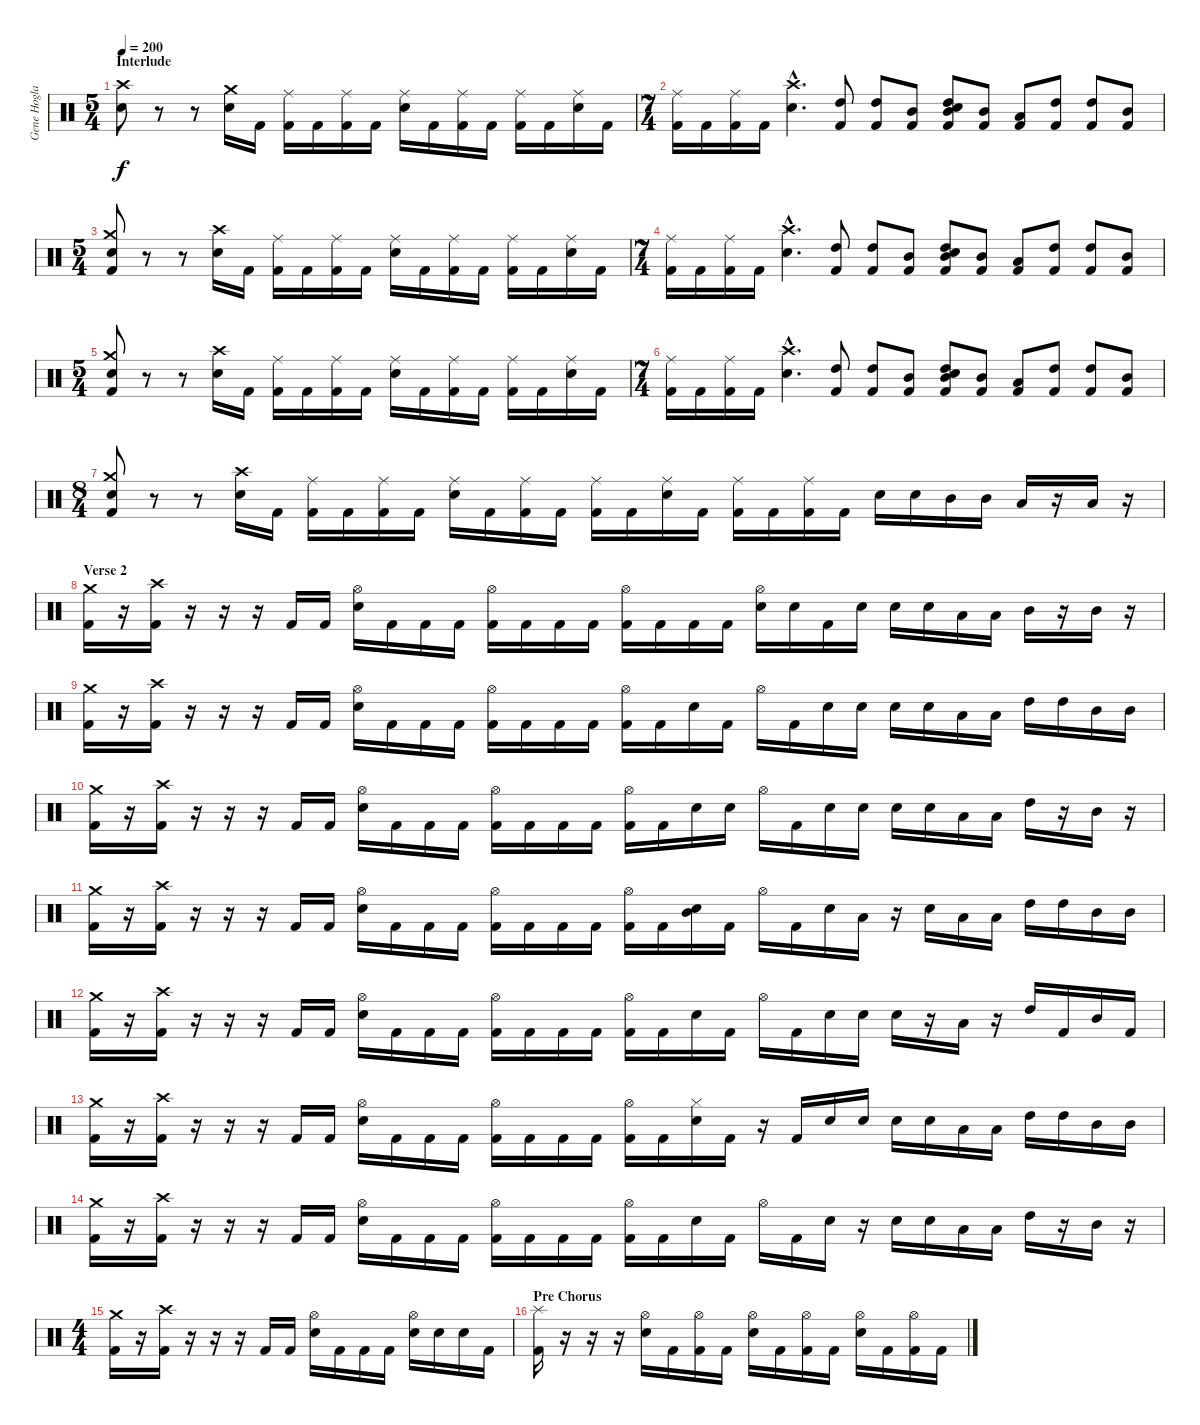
\track ("Gene Hoglan" "Gene Hogla") {instrument percussion}
\staff {score}
\articulation defaults
\ts (5 4)
\section ("" "Interlude")
\tempo 200
\clef neutral
\ks c
("Crash high (hit)" "Electric Snare (hit)").8{dy f} r.8 r.8 ("Crash medium (hit)" "Electric Snare (hit)").16 "Kick (hit) 2".16 ("Ride (middle)" "Kick (hit) 2").16 "Kick (hit) 2".16 ("Ride (middle)" "Kick (hit) 2").16 "Kick (hit) 2".16 ("Ride (middle)" "Electric Snare (hit)").16 "Kick (hit) 2".16 ("Ride (middle)" "Kick (hit) 2").16 "Kick (hit) 2".16 ("Ride (middle)" "Kick (hit) 2").16 "Kick (hit) 2".16 ("Ride (middle)" "Electric Snare (hit)").16 "Kick (hit) 2".16 |
\ts (7 4)
("Ride (middle)" "Kick (hit) 2").16 "Kick (hit) 2".16 ("Ride (middle)" "Kick (hit) 2").16 "Kick (hit) 2".16 ("Crash high (hit)"{hac} "Electric Snare (hit)"{hac}).4{d} ("High Tom (hit)" "Kick (hit) 2").8 ("High Tom (hit)" "Kick (hit) 2").8 ("Mid Tom (hit)" "Kick (hit) 2").8 ("High Tom (hit)" "Mid Tom (hit)" "Electric Snare (hit)" "Kick (hit) 2").8 ("Mid Tom (hit)" "Kick (hit) 2").8 ("Low Tom (hit)" "Kick (hit) 2").8 ("High Tom (hit)" "Kick (hit) 2").8 ("High Tom (hit)" "Kick (hit) 2").8 ("Mid Tom (hit)" "Kick (hit) 2").8 |
\ts (5 4)
("Crash medium (hit)" "Electric Snare (hit)" "Kick (hit) 2").8 r.8 r.8 ("Crash high (hit)" "Electric Snare (hit)").16 "Kick (hit) 2".16 ("Ride (middle)" "Kick (hit) 2").16 "Kick (hit) 2".16 ("Ride (middle)" "Kick (hit) 2").16 "Kick (hit) 2".16 ("Ride (middle)" "Electric Snare (hit)").16 "Kick (hit) 2".16 ("Ride (middle)" "Kick (hit) 2").16 "Kick (hit) 2".16 ("Ride (middle)" "Kick (hit) 2").16 "Kick (hit) 2".16 ("Ride (middle)" "Electric Snare (hit)").16 "Kick (hit) 2".16 |
\ts (7 4)
("Ride (middle)" "Kick (hit) 2").16 "Kick (hit) 2".16 ("Ride (middle)" "Kick (hit) 2").16 "Kick (hit) 2".16 ("Crash high (hit)"{hac} "Electric Snare (hit)"{hac}).4{d} ("High Tom (hit)" "Kick (hit) 2").8 ("High Tom (hit)" "Kick (hit) 2").8 ("Mid Tom (hit)" "Kick (hit) 2").8 ("High Tom (hit)" "Mid Tom (hit)" "Electric Snare (hit)" "Kick (hit) 2").8 ("Mid Tom (hit)" "Kick (hit) 2").8 ("Low Tom (hit)" "Kick (hit) 2").8 ("High Tom (hit)" "Kick (hit) 2").8 ("High Tom (hit)" "Kick (hit) 2").8 ("Mid Tom (hit)" "Kick (hit) 2").8 |
\ts (5 4)
("Crash medium (hit)" "Electric Snare (hit)" "Kick (hit) 2").8 r.8 r.8 ("Crash high (hit)" "Electric Snare (hit)").16 "Kick (hit) 2".16 ("Ride (middle)" "Kick (hit) 2").16 "Kick (hit) 2".16 ("Ride (middle)" "Kick (hit) 2").16 "Kick (hit) 2".16 ("Ride (middle)" "Electric Snare (hit)").16 "Kick (hit) 2".16 ("Ride (middle)" "Kick (hit) 2").16 "Kick (hit) 2".16 ("Ride (middle)" "Kick (hit) 2").16 "Kick (hit) 2".16 ("Ride (middle)" "Electric Snare (hit)").16 "Kick (hit) 2".16 |
\ts (7 4)
("Ride (middle)" "Kick (hit) 2").16 "Kick (hit) 2".16 ("Ride (middle)" "Kick (hit) 2").16 "Kick (hit) 2".16 ("Crash high (hit)"{hac} "Electric Snare (hit)"{hac}).4{d} ("High Tom (hit)" "Kick (hit) 2").8 ("High Tom (hit)" "Kick (hit) 2").8 ("Mid Tom (hit)" "Kick (hit) 2").8 ("High Tom (hit)" "Mid Tom (hit)" "Electric Snare (hit)" "Kick (hit) 2").8 ("Mid Tom (hit)" "Kick (hit) 2").8 ("Low Tom (hit)" "Kick (hit) 2").8 ("High Tom (hit)" "Kick (hit) 2").8 ("High Tom (hit)" "Kick (hit) 2").8 ("Mid Tom (hit)" "Kick (hit) 2").8 |
\ts (8 4)
("Crash medium (hit)" "Electric Snare (hit)" "Kick (hit) 2").8 r.8 r.8 ("Crash high (hit)" "Electric Snare (hit)").16 "Kick (hit) 2".16 ("Ride (middle)" "Kick (hit) 2").16 "Kick (hit) 2".16 ("Ride (middle)" "Kick (hit) 2").16 "Kick (hit) 2".16 ("Ride (middle)" "Electric Snare (hit)").16 "Kick (hit) 2".16 ("Ride (middle)" "Kick (hit) 2").16 "Kick (hit) 2".16 ("Ride (middle)" "Kick (hit) 2").16 "Kick (hit) 2".16 ("Ride (middle)" "Electric Snare (hit)").16 "Kick (hit) 2".16 ("Ride (middle)" "Kick (hit) 2").16 "Kick (hit) 2".16 ("Ride (middle)" "Kick (hit) 2").16 "Kick (hit) 2".16 "Electric Snare (hit)".16 "Electric Snare (hit)".16 "Mid Tom (hit)".16 "Mid Tom (hit)".16 "Low Tom (hit)".16 r.16 "Low Tom (hit)".16 r.16 |
\section ("" "Verse 2")
("Crash medium (hit)" "Kick (hit) 2").16 r.16 ("Crash high (hit)" "Kick (hit) 2").16 r.16 r.16 r.16 "Kick (hit) 2".16 "Kick (hit) 2".16 ("Hi-Hat (open)" "Electric Snare (hit)").16 "Kick (hit) 2".16 "Kick (hit) 2".16 "Kick (hit) 2".16 ("Hi-Hat (open)" "Kick (hit) 2").16 "Kick (hit) 2".16 "Kick (hit) 2".16 "Kick (hit) 2".16 ("Hi-Hat (open)" "Kick (hit) 2").16 "Kick (hit) 2".16 "Kick (hit) 2".16 "Kick (hit) 2".16 ("Hi-Hat (open)" "Electric Snare (hit)").16 "Electric Snare (hit)".16 "Kick (hit) 2".16 "Electric Snare (hit)".16 "Electric Snare (hit)".16 "Electric Snare (hit)".16 "Low Tom (hit)".16 "Low Tom (hit)".16 "Mid Tom (hit)".16 r.16 "Mid Tom (hit)".16 r.16 |
("Crash medium (hit)" "Kick (hit) 2").16 r.16 ("Crash high (hit)" "Kick (hit) 2").16 r.16 r.16 r.16 "Kick (hit) 2".16 "Kick (hit) 2".16 ("Hi-Hat (open)" "Electric Snare (hit)").16 "Kick (hit) 2".16 "Kick (hit) 2".16 "Kick (hit) 2".16 ("Hi-Hat (open)" "Kick (hit) 2").16 "Kick (hit) 2".16 "Kick (hit) 2".16 "Kick (hit) 2".16 ("Hi-Hat (open)" "Kick (hit) 2").16 "Kick (hit) 2".16 "Electric Snare (hit)".16 "Kick (hit) 2".16 "Hi-Hat (open)".16 "Kick (hit) 2".16 "Electric Snare (hit)".16 "Electric Snare (hit)".16 "Electric Snare (hit)".16 "Electric Snare (hit)".16 "Low Tom (hit)".16 "Low Tom (hit)".16 "High Tom (hit)".16 "High Tom (hit)".16 "Mid Tom (hit)".16 "Mid Tom (hit)".16 |
("Crash medium (hit)" "Kick (hit) 2").16 r.16 ("Crash high (hit)" "Kick (hit) 2").16 r.16 r.16 r.16 "Kick (hit) 2".16 "Kick (hit) 2".16 ("Hi-Hat (open)" "Electric Snare (hit)").16 "Kick (hit) 2".16 "Kick (hit) 2".16 "Kick (hit) 2".16 ("Hi-Hat (open)" "Kick (hit) 2").16 "Kick (hit) 2".16 "Kick (hit) 2".16 "Kick (hit) 2".16 ("Hi-Hat (open)" "Kick (hit) 2").16 "Kick (hit) 2".16 "Electric Snare (hit)".16 "Electric Snare (hit)".16 "Hi-Hat (open)".16 "Kick (hit) 2".16 "Electric Snare (hit)".16 "Electric Snare (hit)".16 "Electric Snare (hit)".16 "Electric Snare (hit)".16 "Low Tom (hit)".16 "Low Tom (hit)".16 "High Tom (hit)".16 r.16 "Mid Tom (hit)".16 r.16 |
("Crash medium (hit)" "Kick (hit) 2").16 r.16 ("Crash high (hit)" "Kick (hit) 2").16 r.16 r.16 r.16 "Kick (hit) 2".16 "Kick (hit) 2".16 ("Hi-Hat (open)" "Electric Snare (hit)").16 "Kick (hit) 2".16 "Kick (hit) 2".16 "Kick (hit) 2".16 ("Hi-Hat (open)" "Kick (hit) 2").16 "Kick (hit) 2".16 "Kick (hit) 2".16 "Kick (hit) 2".16 ("Hi-Hat (open)" "Kick (hit) 2").16 "Kick (hit) 2".16 ("Mid Tom (hit)" "Electric Snare (hit)").16 "Kick (hit) 2".16 "Hi-Hat (open)".16 "Kick (hit) 2".16 "Electric Snare (hit)".16 "Low Tom (hit)".16 r.16 "Electric Snare (hit)".16 "Low Tom (hit)".16 "Low Tom (hit)".16 "High Tom (hit)".16 "High Tom (hit)".16 "Mid Tom (hit)".16 "Mid Tom (hit)".16 |
("Crash medium (hit)" "Kick (hit) 2").16 r.16 ("Crash high (hit)" "Kick (hit) 2").16 r.16 r.16 r.16 "Kick (hit) 2".16 "Kick (hit) 2".16 ("Hi-Hat (open)" "Electric Snare (hit)").16 "Kick (hit) 2".16 "Kick (hit) 2".16 "Kick (hit) 2".16 ("Hi-Hat (open)" "Kick (hit) 2").16 "Kick (hit) 2".16 "Kick (hit) 2".16 "Kick (hit) 2".16 ("Hi-Hat (open)" "Kick (hit) 2").16 "Kick (hit) 2".16 "Electric Snare (hit)".16 "Kick (hit) 2".16 "Hi-Hat (open)".16 "Kick (hit) 2".16 "Electric Snare (hit)".16 "Electric Snare (hit)".16 "Electric Snare (hit)".16 r.16 "Low Tom (hit)".16 r.16 "High Tom (hit)".16 "Kick (hit) 2".16 "Mid Tom (hit)".16 "Kick (hit) 2".16 |
("Crash medium (hit)" "Kick (hit) 2").16 r.16 ("Crash high (hit)" "Kick (hit) 2").16 r.16 r.16 r.16 "Kick (hit) 2".16 "Kick (hit) 2".16 ("Hi-Hat (open)" "Electric Snare (hit)").16 "Kick (hit) 2".16 "Kick (hit) 2".16 "Kick (hit) 2".16 ("Hi-Hat (open)" "Kick (hit) 2").16 "Kick (hit) 2".16 "Kick (hit) 2".16 "Kick (hit) 2".16 ("Hi-Hat (open)" "Kick (hit) 2").16 "Kick (hit) 2".16 ("Hi-Hat (closed)" "Electric Snare (hit)").16 "Kick (hit) 2".16 r.16 "Kick (hit) 2".16 "Electric Snare (hit)".16 "Electric Snare (hit)".16 "Electric Snare (hit)".16 "Electric Snare (hit)".16 "Low Tom (hit)".16 "Low Tom (hit)".16 "High Tom (hit)".16 "High Tom (hit)".16 "Mid Tom (hit)".16 "Mid Tom (hit)".16 |
("Crash medium (hit)" "Kick (hit) 2").16 r.16 ("Crash high (hit)" "Kick (hit) 2").16 r.16 r.16 r.16 "Kick (hit) 2".16 "Kick (hit) 2".16 ("Hi-Hat (open)" "Electric Snare (hit)").16 "Kick (hit) 2".16 "Kick (hit) 2".16 "Kick (hit) 2".16 ("Hi-Hat (open)" "Kick (hit) 2").16 "Kick (hit) 2".16 "Kick (hit) 2".16 "Kick (hit) 2".16 ("Hi-Hat (open)" "Kick (hit) 2").16 "Kick (hit) 2".16 "Electric Snare (hit)".16 "Kick (hit) 2".16 "Hi-Hat (open)".16 "Kick (hit) 2".16 "Electric Snare (hit)".16 r.16 "Electric Snare (hit)".16 "Electric Snare (hit)".16 "Low Tom (hit)".16 "Low Tom (hit)".16 "High Tom (hit)".16 r.16 "Mid Tom (hit)".16 r.16 |
\ts (4 4)
("Crash medium (hit)" "Kick (hit) 2").16 r.16 ("Crash high (hit)" "Kick (hit) 2").16 r.16 r.16 r.16 "Kick (hit) 2".16 "Kick (hit) 2".16 ("Hi-Hat (open)" "Electric Snare (hit)").16 "Kick (hit) 2".16 "Kick (hit) 2".16 "Kick (hit) 2".16 ("Hi-Hat (open)" "Electric Snare (hit)").16 "Electric Snare (hit)".16 "Electric Snare (hit)".16 "Kick (hit) 2".16 |
\section ("" "Pre Chorus")
("Splash (hit)" "Kick (hit) 2").16 r.16 r.16 r.16 ("Hi-Hat (open)" "Electric Snare (hit)").16 "Kick (hit) 2".16 ("Hi-Hat (open)" "Kick (hit) 2").16 "Kick (hit) 2".16 ("Hi-Hat (open)" "Electric Snare (hit)").16 "Kick (hit) 2".16 ("Hi-Hat (open)" "Kick (hit) 2").16 "Kick (hit) 2".16 ("Hi-Hat (open)" "Electric Snare (hit)").16 "Kick (hit) 2".16 ("Hi-Hat (open)" "Kick (hit) 2").16 "Kick (hit) 2".16
